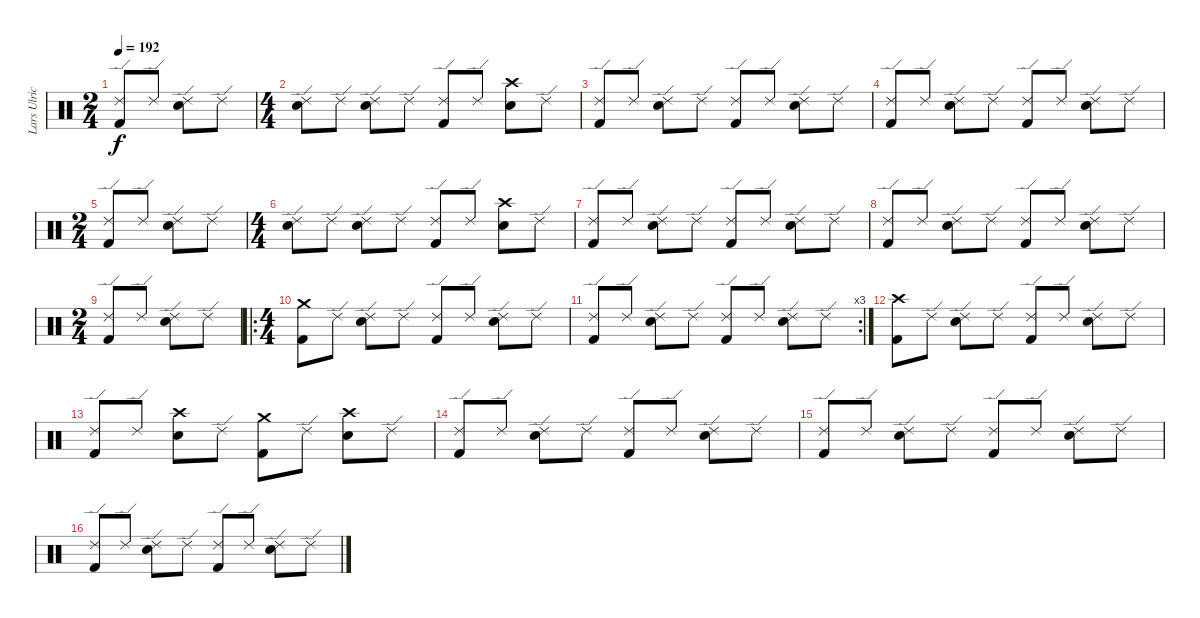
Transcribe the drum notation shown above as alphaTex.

\track ("Lars Ulrich" "Lars Ulric") {instrument percussion}
\staff {score}
\articulation defaults
\ts (2 4)
\tempo 192
\clef neutral
\ks c
("Ride (edge) 2" "Kick (hit) 2").8{dy f} "Ride (edge) 2".8 ("Ride (edge) 2" "Snare (hit) 2").8 "Ride (edge) 2".8 |
\ts (4 4)
("Ride (edge) 2" "Snare (hit) 2").8 "Ride (edge) 2".8 ("Ride (edge) 2" "Snare (hit) 2").8 "Ride (edge) 2".8 ("Ride (edge) 2" "Kick (hit) 2").8 "Ride (edge) 2".8 ("Crash high (hit)" "Snare (hit) 2").8 "Ride (edge) 2".8 |
("Ride (edge) 2" "Kick (hit) 2").8 "Ride (edge) 2".8 ("Ride (edge) 2" "Snare (hit) 2").8 "Ride (edge) 2".8 ("Ride (edge) 2" "Kick (hit) 2").8 "Ride (edge) 2".8 ("Ride (edge) 2" "Snare (hit) 2").8 "Ride (edge) 2".8 |
("Ride (edge) 2" "Kick (hit) 2").8 "Ride (edge) 2".8 ("Ride (edge) 2" "Snare (hit) 2").8 "Ride (edge) 2".8 ("Ride (edge) 2" "Kick (hit) 2").8 "Ride (edge) 2".8 ("Ride (edge) 2" "Snare (hit) 2").8 "Ride (edge) 2".8 |
\ts (2 4)
("Ride (edge) 2" "Kick (hit) 2").8 "Ride (edge) 2".8 ("Ride (edge) 2" "Snare (hit) 2").8 "Ride (edge) 2".8 |
\ts (4 4)
("Ride (edge) 2" "Snare (hit) 2").8 "Ride (edge) 2".8 ("Ride (edge) 2" "Snare (hit) 2").8 "Ride (edge) 2".8 ("Ride (edge) 2" "Kick (hit) 2").8 "Ride (edge) 2".8 ("Crash high (hit)" "Snare (hit) 2").8 "Ride (edge) 2".8 |
("Ride (edge) 2" "Kick (hit) 2").8 "Ride (edge) 2".8 ("Ride (edge) 2" "Snare (hit) 2").8 "Ride (edge) 2".8 ("Ride (edge) 2" "Kick (hit) 2").8 "Ride (edge) 2".8 ("Ride (edge) 2" "Snare (hit) 2").8 "Ride (edge) 2".8 |
("Ride (edge) 2" "Kick (hit) 2").8 "Ride (edge) 2".8 ("Ride (edge) 2" "Snare (hit) 2").8 "Ride (edge) 2".8 ("Ride (edge) 2" "Kick (hit) 2").8 "Ride (edge) 2".8 ("Ride (edge) 2" "Snare (hit) 2").8 "Ride (edge) 2".8 |
\ts (2 4)
("Ride (edge) 2" "Kick (hit) 2").8 "Ride (edge) 2".8 ("Ride (edge) 2" "Snare (hit) 2").8 "Ride (edge) 2".8 |
\ro
\ts (4 4)
("Crash medium (hit)" "Kick (hit) 2").8 "Ride (edge) 2".8 ("Ride (edge) 2" "Snare (hit) 2").8 "Ride (edge) 2".8 ("Ride (edge) 2" "Kick (hit) 2").8 "Ride (edge) 2".8 ("Ride (edge) 2" "Snare (hit) 2").8 "Ride (edge) 2".8 |
\rc 3
("Ride (edge) 2" "Kick (hit) 2").8 "Ride (edge) 2".8 ("Ride (edge) 2" "Snare (hit) 2").8 "Ride (edge) 2".8 ("Ride (edge) 2" "Kick (hit) 2").8 "Ride (edge) 2".8 ("Ride (edge) 2" "Snare (hit) 2").8 "Ride (edge) 2".8 |
("Crash high (hit)" "Kick (hit) 2").8 "Ride (edge) 2".8 ("Ride (edge) 2" "Snare (hit) 2").8 "Ride (edge) 2".8 ("Ride (edge) 2" "Kick (hit) 2").8 "Ride (edge) 2".8 ("Ride (edge) 2" "Snare (hit) 2").8 "Ride (edge) 2".8 |
("Ride (edge) 2" "Kick (hit) 2").8 "Ride (edge) 2".8 ("Crash high (hit)" "Snare (hit) 2").8 "Ride (edge) 2".8 ("Crash medium (hit)" "Kick (hit) 2").8 "Ride (edge) 2".8 ("Crash high (hit)" "Snare (hit) 2").8 "Ride (edge) 2".8 |
("Ride (edge) 2" "Kick (hit) 2").8 "Ride (edge) 2".8 ("Ride (edge) 2" "Snare (hit) 2").8 "Ride (edge) 2".8 ("Ride (edge) 2" "Kick (hit) 2").8 "Ride (edge) 2".8 ("Ride (edge) 2" "Snare (hit) 2").8 "Ride (edge) 2".8 |
("Ride (edge) 2" "Kick (hit) 2").8 "Ride (edge) 2".8 ("Ride (edge) 2" "Snare (hit) 2").8 "Ride (edge) 2".8 ("Ride (edge) 2" "Kick (hit) 2").8 "Ride (edge) 2".8 ("Ride (edge) 2" "Snare (hit) 2").8 "Ride (edge) 2".8 |
("Ride (edge) 2" "Kick (hit) 2").8 "Ride (edge) 2".8 ("Ride (edge) 2" "Snare (hit) 2").8 "Ride (edge) 2".8 ("Ride (edge) 2" "Kick (hit) 2").8 "Ride (edge) 2".8 ("Ride (edge) 2" "Snare (hit) 2").8 "Ride (edge) 2".8
